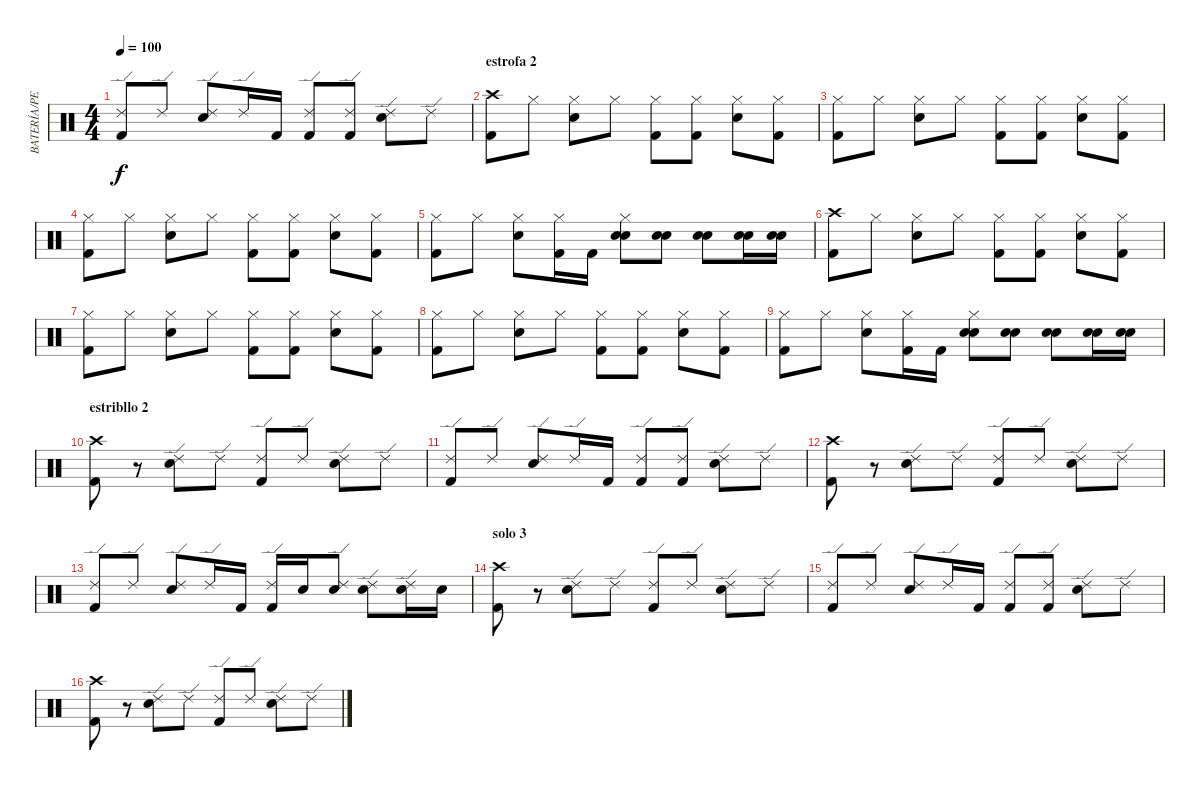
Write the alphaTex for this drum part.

\track ("BATERÍA/PERCUSIÓN" "BATERÍA/PE") {instrument percussion}
\staff {score}
\articulation defaults
\ts (4 4)
\tempo 100
\clef neutral
\ks c
("Ride (edge) 2" "Kick (hit) 2").8{dy f} "Ride (edge) 2".8 ("Ride (edge) 2" "Electric Snare (hit)").8 "Ride (edge) 2".16 "Kick (hit) 2".16 ("Ride (edge) 2" "Kick (hit) 2").8 ("Ride (edge) 2" "Kick (hit) 2").8 ("Ride (edge) 2" "Electric Snare (hit)").8 "Ride (edge) 2".8 |
\section ("" "estrofa 2")
("Crash high (hit)" "Kick (hit) 2").8{volume 16} "Hi-Hat (closed)".8 ("Hi-Hat (closed)" "Hand Clap (hit)").8 "Hi-Hat (closed)".8 ("Hi-Hat (closed)" "Kick (hit) 2").8 ("Kick (hit) 2" "Hi-Hat (closed)").8 ("Hi-Hat (closed)" "Hand Clap (hit)").8 ("Kick (hit) 2" "Hi-Hat (closed)").8 |
("Hi-Hat (closed)" "Kick (hit) 2").8 "Hi-Hat (closed)".8 ("Hi-Hat (closed)" "Hand Clap (hit)").8 "Hi-Hat (closed)".8 ("Hi-Hat (closed)" "Kick (hit) 2").8 ("Kick (hit) 2" "Hi-Hat (closed)").8 ("Hi-Hat (closed)" "Hand Clap (hit)").8 ("Kick (hit) 2" "Hi-Hat (closed)").8 |
("Hi-Hat (closed)" "Kick (hit) 2").8 "Hi-Hat (closed)".8 ("Hi-Hat (closed)" "Hand Clap (hit)").8 "Hi-Hat (closed)".8 ("Hi-Hat (closed)" "Kick (hit) 2").8 ("Kick (hit) 2" "Hi-Hat (closed)").8 ("Hi-Hat (closed)" "Hand Clap (hit)").8 ("Kick (hit) 2" "Hi-Hat (closed)").8 |
("Hi-Hat (closed)" "Kick (hit) 2").8 "Hi-Hat (closed)".8 ("Hi-Hat (closed)" "Hand Clap (hit)").8 ("Hi-Hat (closed)" "Kick (hit) 2").16 "Kick (hit) 2".16 ("Hi-Hat (closed)" "Hand Clap (hit)" "Snare (hit) 2").8 ("Snare (hit) 2" "Hand Clap (hit)").8 ("Snare (hit) 2" "Hand Clap (hit)").8 ("Snare (hit) 2" "Hand Clap (hit)").16 ("Snare (hit) 2" "Hand Clap (hit)").16 |
("Crash high (hit)" "Kick (hit) 2").8{volume 16} "Hi-Hat (closed)".8 ("Hi-Hat (closed)" "Hand Clap (hit)").8 "Hi-Hat (closed)".8 ("Hi-Hat (closed)" "Kick (hit) 2").8 ("Kick (hit) 2" "Hi-Hat (closed)").8 ("Hi-Hat (closed)" "Hand Clap (hit)").8 ("Kick (hit) 2" "Hi-Hat (closed)").8 |
("Hi-Hat (closed)" "Kick (hit) 2").8 "Hi-Hat (closed)".8 ("Hi-Hat (closed)" "Hand Clap (hit)").8 "Hi-Hat (closed)".8 ("Hi-Hat (closed)" "Kick (hit) 2").8 ("Kick (hit) 2" "Hi-Hat (closed)").8 ("Hi-Hat (closed)" "Hand Clap (hit)").8 ("Kick (hit) 2" "Hi-Hat (closed)").8 |
("Hi-Hat (closed)" "Kick (hit) 2").8 "Hi-Hat (closed)".8 ("Hi-Hat (closed)" "Hand Clap (hit)").8 "Hi-Hat (closed)".8 ("Hi-Hat (closed)" "Kick (hit) 2").8 ("Kick (hit) 2" "Hi-Hat (closed)").8 ("Hi-Hat (closed)" "Hand Clap (hit)").8 ("Kick (hit) 2" "Hi-Hat (closed)").8 |
("Hi-Hat (closed)" "Kick (hit) 2").8 "Hi-Hat (closed)".8 ("Hi-Hat (closed)" "Hand Clap (hit)").8 ("Hi-Hat (closed)" "Kick (hit) 2").16 "Kick (hit) 2".16 ("Hi-Hat (closed)" "Hand Clap (hit)" "Snare (hit) 2").8 ("Snare (hit) 2" "Hand Clap (hit)").8 ("Snare (hit) 2" "Hand Clap (hit)").8 ("Snare (hit) 2" "Hand Clap (hit)").16 ("Snare (hit) 2" "Hand Clap (hit)").16 |
\section ("" "estribllo 2")
("Crash high (hit)" "Kick (hit) 2").8 r.8 ("Ride (edge) 2" "Electric Snare (hit)").8 "Ride (edge) 2".8 ("Ride (edge) 2" "Kick (hit) 2").8 "Ride (edge) 2".8 ("Ride (edge) 2" "Electric Snare (hit)").8 "Ride (edge) 2".8 |
("Ride (edge) 2" "Kick (hit) 2").8 "Ride (edge) 2".8 ("Ride (edge) 2" "Electric Snare (hit)").8 "Ride (edge) 2".16 "Kick (hit) 2".16 ("Ride (edge) 2" "Kick (hit) 2").8 ("Ride (edge) 2" "Kick (hit) 2").8 ("Ride (edge) 2" "Electric Snare (hit)").8 "Ride (edge) 2".8 |
("Crash high (hit)" "Kick (hit) 2").8 r.8 ("Ride (edge) 2" "Electric Snare (hit)").8 "Ride (edge) 2".8 ("Ride (edge) 2" "Kick (hit) 2").8 "Ride (edge) 2".8 ("Ride (edge) 2" "Electric Snare (hit)").8 "Ride (edge) 2".8 |
("Ride (edge) 2" "Kick (hit) 2").8 "Ride (edge) 2".8 ("Ride (edge) 2" "Electric Snare (hit)").8 "Ride (edge) 2".16 "Kick (hit) 2".16 ("Ride (edge) 2" "Kick (hit) 2").16 "Electric Snare (hit)".16 ("Ride (edge) 2" "Electric Snare (hit)").8 ("Ride (edge) 2" "Electric Snare (hit)").8 ("Ride (edge) 2" "Electric Snare (hit)").16 "Electric Snare (hit)".16 |
\section ("" "solo 3")
("Crash high (hit)" "Kick (hit) 2").8 r.8 ("Ride (edge) 2" "Electric Snare (hit)").8 "Ride (edge) 2".8 ("Ride (edge) 2" "Kick (hit) 2").8 "Ride (edge) 2".8 ("Ride (edge) 2" "Electric Snare (hit)").8 "Ride (edge) 2".8 |
("Ride (edge) 2" "Kick (hit) 2").8 "Ride (edge) 2".8 ("Ride (edge) 2" "Electric Snare (hit)").8 "Ride (edge) 2".16 "Kick (hit) 2".16 ("Ride (edge) 2" "Kick (hit) 2").8 ("Ride (edge) 2" "Kick (hit) 2").8 ("Ride (edge) 2" "Electric Snare (hit)").8 "Ride (edge) 2".8 |
("Crash high (hit)" "Kick (hit) 2").8 r.8 ("Ride (edge) 2" "Electric Snare (hit)").8 "Ride (edge) 2".8 ("Ride (edge) 2" "Kick (hit) 2").8 "Ride (edge) 2".8 ("Ride (edge) 2" "Electric Snare (hit)").8 "Ride (edge) 2".8
